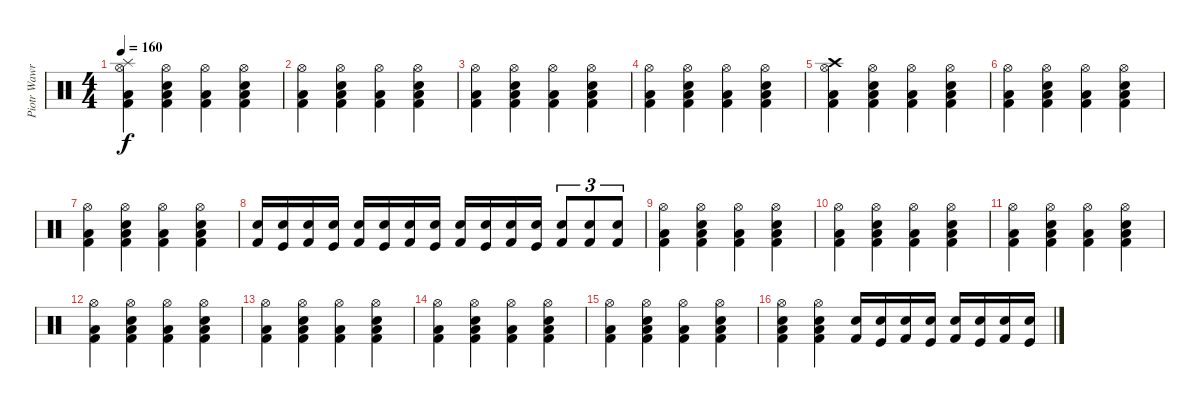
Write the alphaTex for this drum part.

\track ("Piotr Wawrzeniuk" "Piotr Wawr") {instrument percussion}
\staff {score}
\articulation defaults
\ts (4 4)
\tempo 160
\clef neutral
\ks c
("Splash (hit)" "Hi-Hat (open)" "Low Floor Tom (hit)" "Kick (hit) 2").4{dy f} ("Snare (hit) 2" "Hi-Hat (open)" "Low Floor Tom (hit)" "Kick (hit) 2").4 ("Hi-Hat (open)" "Low Floor Tom (hit)" "Kick (hit) 2").4 ("Snare (hit) 2" "Hi-Hat (open)" "Low Floor Tom (hit)" "Kick (hit) 2").4 |
("Hi-Hat (open)" "Low Floor Tom (hit)" "Kick (hit) 2").4 ("Snare (hit) 2" "Hi-Hat (open)" "Low Floor Tom (hit)" "Kick (hit) 2").4 ("Hi-Hat (open)" "Low Floor Tom (hit)" "Kick (hit) 2").4 ("Snare (hit) 2" "Hi-Hat (open)" "Low Floor Tom (hit)" "Kick (hit) 2").4 |
("Hi-Hat (open)" "Low Floor Tom (hit)" "Kick (hit) 2").4 ("Snare (hit) 2" "Hi-Hat (open)" "Low Floor Tom (hit)" "Kick (hit) 2").4 ("Hi-Hat (open)" "Low Floor Tom (hit)" "Kick (hit) 2").4 ("Snare (hit) 2" "Hi-Hat (open)" "Low Floor Tom (hit)" "Kick (hit) 2").4 |
("Hi-Hat (open)" "Low Floor Tom (hit)" "Kick (hit) 2").4 ("Snare (hit) 2" "Hi-Hat (open)" "Low Floor Tom (hit)" "Kick (hit) 2").4 ("Hi-Hat (open)" "Low Floor Tom (hit)" "Kick (hit) 2").4 ("Snare (hit) 2" "Hi-Hat (open)" "Low Floor Tom (hit)" "Kick (hit) 2").4 |
("Crash high (hit)" "Hi-Hat (open)" "Low Floor Tom (hit)" "Kick (hit) 2").4 ("Snare (hit) 2" "Hi-Hat (open)" "Low Floor Tom (hit)" "Kick (hit) 2").4 ("Hi-Hat (open)" "Low Floor Tom (hit)" "Kick (hit) 2").4 ("Snare (hit) 2" "Hi-Hat (open)" "Low Floor Tom (hit)" "Kick (hit) 2").4 |
("Hi-Hat (open)" "Low Floor Tom (hit)" "Kick (hit) 2").4 ("Snare (hit) 2" "Hi-Hat (open)" "Low Floor Tom (hit)" "Kick (hit) 2").4 ("Hi-Hat (open)" "Low Floor Tom (hit)" "Kick (hit) 2").4 ("Snare (hit) 2" "Hi-Hat (open)" "Low Floor Tom (hit)" "Kick (hit) 2").4 |
("Hi-Hat (open)" "Low Floor Tom (hit)" "Kick (hit) 2").4 ("Snare (hit) 2" "Hi-Hat (open)" "Low Floor Tom (hit)" "Kick (hit) 2").4 ("Hi-Hat (open)" "Low Floor Tom (hit)" "Kick (hit) 2").4 ("Snare (hit) 2" "Hi-Hat (open)" "Low Floor Tom (hit)" "Kick (hit) 2").4 |
("Snare (hit) 2" "Kick (hit) 2").16 ("Snare (hit) 2" "Kick (hit)").16 ("Snare (hit) 2" "Kick (hit) 2").16 ("Snare (hit) 2" "Kick (hit)").16 ("Snare (hit) 2" "Kick (hit) 2").16 ("Snare (hit) 2" "Kick (hit)").16 ("Snare (hit) 2" "Kick (hit) 2").16 ("Snare (hit) 2" "Kick (hit)").16 ("Snare (hit) 2" "Kick (hit) 2").16 ("Snare (hit) 2" "Kick (hit)").16 ("Snare (hit) 2" "Kick (hit) 2").16 ("Snare (hit) 2" "Kick (hit)").16 ("Snare (hit) 2" "Kick (hit) 2").8{tu (3 2)} ("Snare (hit) 2" "Kick (hit) 2").8{tu (3 2)} ("Snare (hit) 2" "Kick (hit) 2").8{tu (3 2)} |
("Hi-Hat (open)" "Low Floor Tom (hit)" "Kick (hit) 2").4 ("Snare (hit) 2" "Hi-Hat (open)" "Low Floor Tom (hit)" "Kick (hit) 2").4 ("Hi-Hat (open)" "Low Floor Tom (hit)" "Kick (hit) 2").4 ("Snare (hit) 2" "Hi-Hat (open)" "Low Floor Tom (hit)" "Kick (hit) 2").4 |
("Hi-Hat (open)" "Low Floor Tom (hit)" "Kick (hit) 2").4 ("Snare (hit) 2" "Hi-Hat (open)" "Low Floor Tom (hit)" "Kick (hit) 2").4 ("Hi-Hat (open)" "Low Floor Tom (hit)" "Kick (hit) 2").4 ("Snare (hit) 2" "Hi-Hat (open)" "Low Floor Tom (hit)" "Kick (hit) 2").4 |
("Hi-Hat (open)" "Low Floor Tom (hit)" "Kick (hit) 2").4 ("Snare (hit) 2" "Hi-Hat (open)" "Low Floor Tom (hit)" "Kick (hit) 2").4 ("Hi-Hat (open)" "Low Floor Tom (hit)" "Kick (hit) 2").4 ("Snare (hit) 2" "Hi-Hat (open)" "Low Floor Tom (hit)" "Kick (hit) 2").4 |
("Hi-Hat (open)" "Low Floor Tom (hit)" "Kick (hit) 2").4 ("Snare (hit) 2" "Hi-Hat (open)" "Low Floor Tom (hit)" "Kick (hit) 2").4 ("Hi-Hat (open)" "Low Floor Tom (hit)" "Kick (hit) 2").4 ("Snare (hit) 2" "Hi-Hat (open)" "Low Floor Tom (hit)" "Kick (hit) 2").4 |
("Hi-Hat (open)" "Low Floor Tom (hit)" "Kick (hit) 2").4 ("Snare (hit) 2" "Hi-Hat (open)" "Low Floor Tom (hit)" "Kick (hit) 2").4 ("Hi-Hat (open)" "Low Floor Tom (hit)" "Kick (hit) 2").4 ("Snare (hit) 2" "Hi-Hat (open)" "Low Floor Tom (hit)" "Kick (hit) 2").4 |
("Hi-Hat (open)" "Low Floor Tom (hit)" "Kick (hit) 2").4 ("Snare (hit) 2" "Hi-Hat (open)" "Low Floor Tom (hit)" "Kick (hit) 2").4 ("Hi-Hat (open)" "Low Floor Tom (hit)" "Kick (hit) 2").4 ("Snare (hit) 2" "Hi-Hat (open)" "Low Floor Tom (hit)" "Kick (hit) 2").4 |
("Hi-Hat (open)" "Low Floor Tom (hit)" "Kick (hit) 2").4 ("Snare (hit) 2" "Hi-Hat (open)" "Low Floor Tom (hit)" "Kick (hit) 2").4 ("Hi-Hat (open)" "Low Floor Tom (hit)" "Kick (hit) 2").4 ("Snare (hit) 2" "Hi-Hat (open)" "Low Floor Tom (hit)" "Kick (hit) 2").4 |
("Snare (hit) 2" "Hi-Hat (open)" "Low Floor Tom (hit)" "Kick (hit) 2").4 ("Snare (hit) 2" "Hi-Hat (open)" "Low Floor Tom (hit)" "Kick (hit) 2").4 ("Snare (hit) 2" "Kick (hit) 2").16 ("Snare (hit) 2" "Kick (hit)").16 ("Snare (hit) 2" "Kick (hit) 2").16 ("Snare (hit) 2" "Kick (hit)").16 ("Snare (hit) 2" "Kick (hit) 2").16 ("Snare (hit) 2" "Kick (hit)").16 ("Snare (hit) 2" "Kick (hit) 2").16 ("Snare (hit) 2" "Kick (hit)").16
